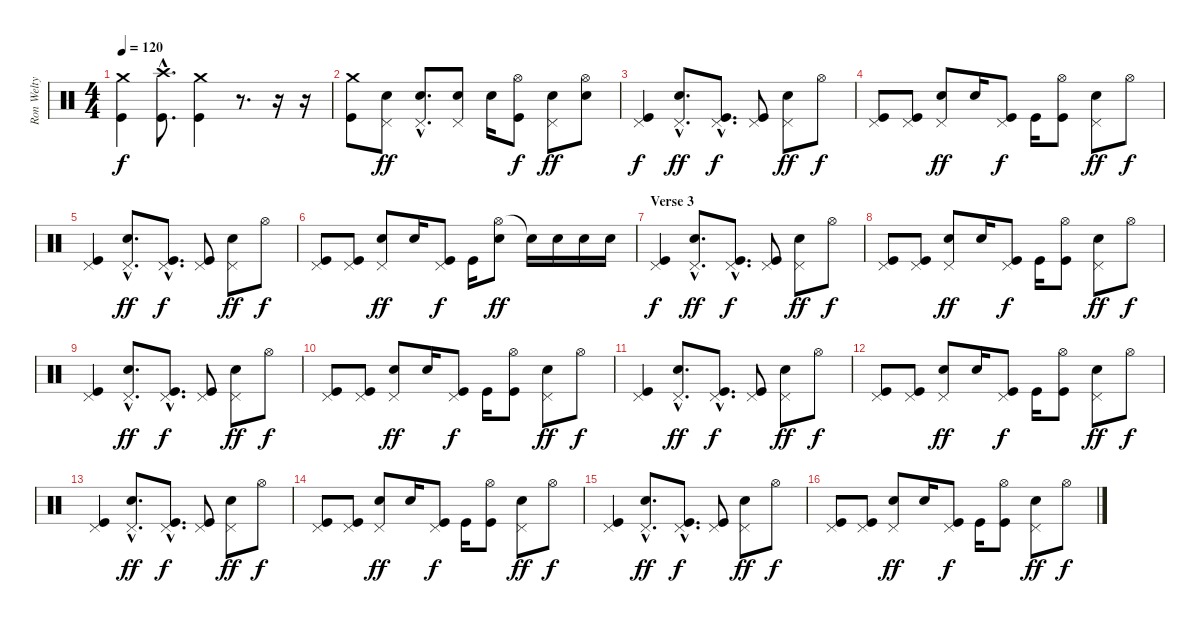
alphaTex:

\track ("Ron Welty" "Ron Welty") {instrument percussion}
\staff {score}
\articulation defaults
\ts (4 4)
\tempo 120
\clef neutral
\ks c
("Crash medium (hit)" "Kick (hit)").4{dy f} ("Crash high (hit)"{hac} "Kick (hit)").8{d} ("Crash medium (hit)" "Kick (hit)").4 r.8{d} r.16 r.16 |
("Crash medium (hit)" "Kick (hit)").8 ("Pedal Hi-Hat (hit)" "Snare (hit) 2").8{dy ff} ("Pedal Hi-Hat (hit)"{hac} "Snare (hit) 2"{hac}).8{d} ("Pedal Hi-Hat (hit)" "Snare (hit) 2").8 "Snare (hit) 2".16 ("Hi-Hat (open)" "Kick (hit)").8{dy f} ("Pedal Hi-Hat (hit)" "Snare (hit) 2").8{dy ff} ("Hi-Hat (open)" "Snare (hit) 2").8 |
("Pedal Hi-Hat (hit)" "Kick (hit)").4{dy f} ("Pedal Hi-Hat (hit)"{hac} "Snare (hit) 2"{hac}).8{d dy ff} ("Pedal Hi-Hat (hit)"{hac} "Kick (hit)"{hac}).8{d dy f} ("Pedal Hi-Hat (hit)" "Kick (hit)").8 ("Pedal Hi-Hat (hit)" "Snare (hit) 2").8{dy ff} "Hi-Hat (open)".8{dy f} |
("Pedal Hi-Hat (hit)" "Kick (hit)").8 ("Pedal Hi-Hat (hit)" "Kick (hit)").8 ("Pedal Hi-Hat (hit)" "Snare (hit) 2").8{dy ff} "Snare (hit) 2".16 ("Pedal Hi-Hat (hit)" "Kick (hit)").8{dy f} "Kick (hit)".16 ("Hi-Hat (open)" "Kick (hit)").8 ("Pedal Hi-Hat (hit)" "Snare (hit) 2").8{dy ff} "Hi-Hat (open)".8{dy f} |
("Pedal Hi-Hat (hit)" "Kick (hit)").4 ("Pedal Hi-Hat (hit)"{hac} "Snare (hit) 2"{hac}).8{d dy ff} ("Pedal Hi-Hat (hit)"{hac} "Kick (hit)"{hac}).8{d dy f} ("Pedal Hi-Hat (hit)" "Kick (hit)").8 ("Pedal Hi-Hat (hit)" "Snare (hit) 2").8{dy ff} "Hi-Hat (open)".8{dy f} |
("Pedal Hi-Hat (hit)" "Kick (hit)").8 ("Pedal Hi-Hat (hit)" "Kick (hit)").8 ("Pedal Hi-Hat (hit)" "Snare (hit) 2").8{dy ff} "Snare (hit) 2".16 ("Pedal Hi-Hat (hit)" "Kick (hit)").8{dy f} "Kick (hit)".16 ("Hi-Hat (open)" "Snare (hit) 2").8{dy ff} "Snare (hit) 2"{t}.16 "Snare (hit) 2".16 "Snare (hit) 2".16 "Snare (hit) 2".16 |
\section ("" "Verse 3")
("Pedal Hi-Hat (hit)" "Kick (hit)").4{dy f} ("Pedal Hi-Hat (hit)"{hac} "Snare (hit) 2"{hac}).8{d dy ff} ("Pedal Hi-Hat (hit)"{hac} "Kick (hit)"{hac}).8{d dy f} ("Pedal Hi-Hat (hit)" "Kick (hit)").8 ("Pedal Hi-Hat (hit)" "Snare (hit) 2").8{dy ff} "Hi-Hat (open)".8{dy f} |
("Pedal Hi-Hat (hit)" "Kick (hit)").8 ("Pedal Hi-Hat (hit)" "Kick (hit)").8 ("Pedal Hi-Hat (hit)" "Snare (hit) 2").8{dy ff} "Snare (hit) 2".16 ("Pedal Hi-Hat (hit)" "Kick (hit)").8{dy f} "Kick (hit)".16 ("Hi-Hat (open)" "Kick (hit)").8 ("Pedal Hi-Hat (hit)" "Snare (hit) 2").8{dy ff} "Hi-Hat (open)".8{dy f} |
("Pedal Hi-Hat (hit)" "Kick (hit)").4 ("Pedal Hi-Hat (hit)"{hac} "Snare (hit) 2"{hac}).8{d dy ff} ("Pedal Hi-Hat (hit)"{hac} "Kick (hit)"{hac}).8{d dy f} ("Pedal Hi-Hat (hit)" "Kick (hit)").8 ("Pedal Hi-Hat (hit)" "Snare (hit) 2").8{dy ff} "Hi-Hat (open)".8{dy f} |
("Pedal Hi-Hat (hit)" "Kick (hit)").8 ("Pedal Hi-Hat (hit)" "Kick (hit)").8 ("Pedal Hi-Hat (hit)" "Snare (hit) 2").8{dy ff} "Snare (hit) 2".16 ("Pedal Hi-Hat (hit)" "Kick (hit)").8{dy f} "Kick (hit)".16 ("Hi-Hat (open)" "Kick (hit)").8 ("Pedal Hi-Hat (hit)" "Snare (hit) 2").8{dy ff} "Hi-Hat (open)".8{dy f} |
("Pedal Hi-Hat (hit)" "Kick (hit)").4 ("Pedal Hi-Hat (hit)"{hac} "Snare (hit) 2"{hac}).8{d dy ff} ("Pedal Hi-Hat (hit)"{hac} "Kick (hit)"{hac}).8{d dy f} ("Pedal Hi-Hat (hit)" "Kick (hit)").8 ("Pedal Hi-Hat (hit)" "Snare (hit) 2").8{dy ff} "Hi-Hat (open)".8{dy f} |
("Pedal Hi-Hat (hit)" "Kick (hit)").8 ("Pedal Hi-Hat (hit)" "Kick (hit)").8 ("Pedal Hi-Hat (hit)" "Snare (hit) 2").8{dy ff} "Snare (hit) 2".16 ("Pedal Hi-Hat (hit)" "Kick (hit)").8{dy f} "Kick (hit)".16 ("Hi-Hat (open)" "Kick (hit)").8 ("Pedal Hi-Hat (hit)" "Snare (hit) 2").8{dy ff} "Hi-Hat (open)".8{dy f} |
("Pedal Hi-Hat (hit)" "Kick (hit)").4 ("Pedal Hi-Hat (hit)"{hac} "Snare (hit) 2"{hac}).8{d dy ff} ("Pedal Hi-Hat (hit)"{hac} "Kick (hit)"{hac}).8{d dy f} ("Pedal Hi-Hat (hit)" "Kick (hit)").8 ("Pedal Hi-Hat (hit)" "Snare (hit) 2").8{dy ff} "Hi-Hat (open)".8{dy f} |
("Pedal Hi-Hat (hit)" "Kick (hit)").8 ("Pedal Hi-Hat (hit)" "Kick (hit)").8 ("Pedal Hi-Hat (hit)" "Snare (hit) 2").8{dy ff} "Snare (hit) 2".16 ("Pedal Hi-Hat (hit)" "Kick (hit)").8{dy f} "Kick (hit)".16 ("Hi-Hat (open)" "Kick (hit)").8 ("Pedal Hi-Hat (hit)" "Snare (hit) 2").8{dy ff} "Hi-Hat (open)".8{dy f} |
("Pedal Hi-Hat (hit)" "Kick (hit)").4 ("Pedal Hi-Hat (hit)"{hac} "Snare (hit) 2"{hac}).8{d dy ff} ("Pedal Hi-Hat (hit)"{hac} "Kick (hit)"{hac}).8{d dy f} ("Pedal Hi-Hat (hit)" "Kick (hit)").8 ("Pedal Hi-Hat (hit)" "Snare (hit) 2").8{dy ff} "Hi-Hat (open)".8{dy f} |
("Pedal Hi-Hat (hit)" "Kick (hit)").8 ("Pedal Hi-Hat (hit)" "Kick (hit)").8 ("Pedal Hi-Hat (hit)" "Snare (hit) 2").8{dy ff} "Snare (hit) 2".16 ("Pedal Hi-Hat (hit)" "Kick (hit)").8{dy f} "Kick (hit)".16 ("Hi-Hat (open)" "Kick (hit)").8 ("Pedal Hi-Hat (hit)" "Snare (hit) 2").8{dy ff} "Hi-Hat (open)".8{dy f}
